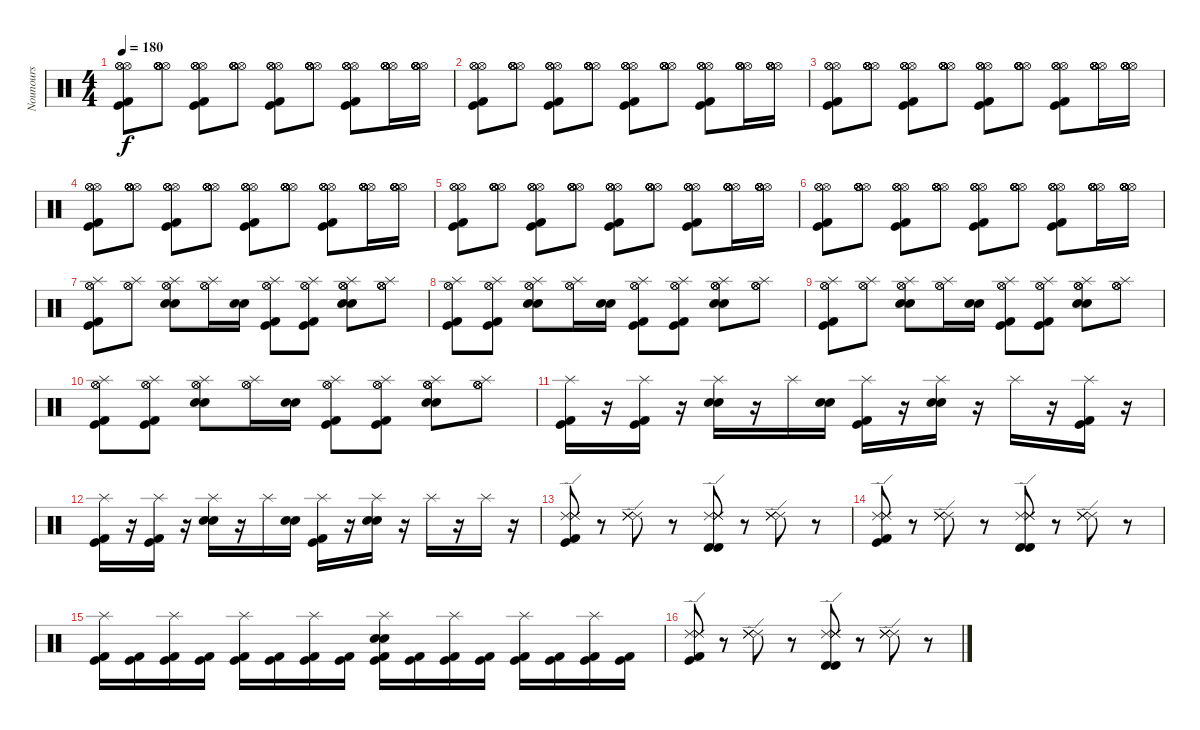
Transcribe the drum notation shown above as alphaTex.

\track ("Nounours" "Nounours") {instrument percussion}
\staff {score}
\articulation defaults
\ts (4 4)
\tempo 180
\clef neutral
\ks c
("Hi-Hat (open)" "Hi-Hat (open)" "Hi-Hat (open)" "Kick (hit) 2" "Kick (hit)").8{dy f} ("Hi-Hat (open)" "Hi-Hat (open)" "Hi-Hat (open)" "Hi-Hat (open)" "Hi-Hat (open)" "Hi-Hat (open)").8 ("Hi-Hat (open)" "Hi-Hat (open)" "Hi-Hat (open)" "Hi-Hat (open)" "Kick (hit) 2" "Kick (hit)").8 ("Hi-Hat (open)" "Hi-Hat (open)" "Hi-Hat (open)" "Hi-Hat (open)" "Hi-Hat (open)" "Hi-Hat (open)").8 ("Hi-Hat (open)" "Hi-Hat (open)" "Hi-Hat (open)" "Hi-Hat (open)" "Kick (hit)" "Kick (hit) 2").8 ("Hi-Hat (open)" "Hi-Hat (open)" "Hi-Hat (open)" "Hi-Hat (open)" "Hi-Hat (open)" "Hi-Hat (open)").8 ("Hi-Hat (open)" "Hi-Hat (open)" "Hi-Hat (open)" "Hi-Hat (open)" "Kick (hit) 2" "Kick (hit)").8 ("Hi-Hat (open)" "Hi-Hat (open)" "Hi-Hat (open)" "Hi-Hat (open)" "Hi-Hat (open)" "Hi-Hat (open)").16 ("Hi-Hat (open)" "Hi-Hat (open)" "Hi-Hat (open)" "Hi-Hat (open)" "Hi-Hat (open)" "Hi-Hat (open)").16 |
("Hi-Hat (open)" "Hi-Hat (open)" "Hi-Hat (open)" "Kick (hit) 2" "Kick (hit)").8 ("Hi-Hat (open)" "Hi-Hat (open)" "Hi-Hat (open)" "Hi-Hat (open)" "Hi-Hat (open)" "Hi-Hat (open)").8 ("Hi-Hat (open)" "Hi-Hat (open)" "Hi-Hat (open)" "Hi-Hat (open)" "Kick (hit) 2" "Kick (hit)").8 ("Hi-Hat (open)" "Hi-Hat (open)" "Hi-Hat (open)" "Hi-Hat (open)" "Hi-Hat (open)" "Hi-Hat (open)").8 ("Hi-Hat (open)" "Hi-Hat (open)" "Hi-Hat (open)" "Hi-Hat (open)" "Kick (hit)" "Kick (hit) 2").8 ("Hi-Hat (open)" "Hi-Hat (open)" "Hi-Hat (open)" "Hi-Hat (open)" "Hi-Hat (open)" "Hi-Hat (open)").8 ("Hi-Hat (open)" "Hi-Hat (open)" "Hi-Hat (open)" "Hi-Hat (open)" "Kick (hit) 2" "Kick (hit)").8 ("Hi-Hat (open)" "Hi-Hat (open)" "Hi-Hat (open)" "Hi-Hat (open)" "Hi-Hat (open)" "Hi-Hat (open)").16 ("Hi-Hat (open)" "Hi-Hat (open)" "Hi-Hat (open)" "Hi-Hat (open)" "Hi-Hat (open)" "Hi-Hat (open)").16 |
("Hi-Hat (open)" "Hi-Hat (open)" "Hi-Hat (open)" "Kick (hit) 2" "Kick (hit)").8 ("Hi-Hat (open)" "Hi-Hat (open)" "Hi-Hat (open)" "Hi-Hat (open)" "Hi-Hat (open)" "Hi-Hat (open)").8 ("Hi-Hat (open)" "Hi-Hat (open)" "Hi-Hat (open)" "Hi-Hat (open)" "Kick (hit) 2" "Kick (hit)").8 ("Hi-Hat (open)" "Hi-Hat (open)" "Hi-Hat (open)" "Hi-Hat (open)" "Hi-Hat (open)" "Hi-Hat (open)").8 ("Hi-Hat (open)" "Hi-Hat (open)" "Hi-Hat (open)" "Hi-Hat (open)" "Kick (hit)" "Kick (hit) 2").8 ("Hi-Hat (open)" "Hi-Hat (open)" "Hi-Hat (open)" "Hi-Hat (open)" "Hi-Hat (open)" "Hi-Hat (open)").8 ("Hi-Hat (open)" "Hi-Hat (open)" "Hi-Hat (open)" "Hi-Hat (open)" "Kick (hit) 2" "Kick (hit)").8 ("Hi-Hat (open)" "Hi-Hat (open)" "Hi-Hat (open)" "Hi-Hat (open)" "Hi-Hat (open)" "Hi-Hat (open)").16 ("Hi-Hat (open)" "Hi-Hat (open)" "Hi-Hat (open)" "Hi-Hat (open)" "Hi-Hat (open)" "Hi-Hat (open)").16 |
("Hi-Hat (open)" "Hi-Hat (open)" "Hi-Hat (open)" "Kick (hit) 2" "Kick (hit)").8 ("Hi-Hat (open)" "Hi-Hat (open)" "Hi-Hat (open)" "Hi-Hat (open)" "Hi-Hat (open)" "Hi-Hat (open)").8 ("Hi-Hat (open)" "Hi-Hat (open)" "Hi-Hat (open)" "Hi-Hat (open)" "Kick (hit) 2" "Kick (hit)").8 ("Hi-Hat (open)" "Hi-Hat (open)" "Hi-Hat (open)" "Hi-Hat (open)" "Hi-Hat (open)" "Hi-Hat (open)").8 ("Hi-Hat (open)" "Hi-Hat (open)" "Hi-Hat (open)" "Hi-Hat (open)" "Kick (hit)" "Kick (hit) 2").8 ("Hi-Hat (open)" "Hi-Hat (open)" "Hi-Hat (open)" "Hi-Hat (open)" "Hi-Hat (open)" "Hi-Hat (open)").8 ("Hi-Hat (open)" "Hi-Hat (open)" "Hi-Hat (open)" "Hi-Hat (open)" "Kick (hit) 2" "Kick (hit)").8 ("Hi-Hat (open)" "Hi-Hat (open)" "Hi-Hat (open)" "Hi-Hat (open)" "Hi-Hat (open)" "Hi-Hat (open)").16 ("Hi-Hat (open)" "Hi-Hat (open)" "Hi-Hat (open)" "Hi-Hat (open)" "Hi-Hat (open)" "Hi-Hat (open)").16 |
("Hi-Hat (open)" "Hi-Hat (open)" "Hi-Hat (open)" "Kick (hit) 2" "Kick (hit)").8 ("Hi-Hat (open)" "Hi-Hat (open)" "Hi-Hat (open)" "Hi-Hat (open)" "Hi-Hat (open)" "Hi-Hat (open)").8 ("Hi-Hat (open)" "Hi-Hat (open)" "Hi-Hat (open)" "Hi-Hat (open)" "Kick (hit) 2" "Kick (hit)").8 ("Hi-Hat (open)" "Hi-Hat (open)" "Hi-Hat (open)" "Hi-Hat (open)" "Hi-Hat (open)" "Hi-Hat (open)").8 ("Hi-Hat (open)" "Hi-Hat (open)" "Hi-Hat (open)" "Hi-Hat (open)" "Kick (hit)" "Kick (hit) 2").8 ("Hi-Hat (open)" "Hi-Hat (open)" "Hi-Hat (open)" "Hi-Hat (open)" "Hi-Hat (open)" "Hi-Hat (open)").8 ("Hi-Hat (open)" "Hi-Hat (open)" "Hi-Hat (open)" "Hi-Hat (open)" "Kick (hit) 2" "Kick (hit)").8 ("Hi-Hat (open)" "Hi-Hat (open)" "Hi-Hat (open)" "Hi-Hat (open)" "Hi-Hat (open)" "Hi-Hat (open)").16 ("Hi-Hat (open)" "Hi-Hat (open)" "Hi-Hat (open)" "Hi-Hat (open)" "Hi-Hat (open)" "Hi-Hat (open)").16 |
("Hi-Hat (open)" "Hi-Hat (open)" "Hi-Hat (open)" "Kick (hit) 2" "Kick (hit)").8 ("Hi-Hat (open)" "Hi-Hat (open)" "Hi-Hat (open)" "Hi-Hat (open)" "Hi-Hat (open)" "Hi-Hat (open)").8 ("Hi-Hat (open)" "Hi-Hat (open)" "Hi-Hat (open)" "Hi-Hat (open)" "Kick (hit) 2" "Kick (hit)").8 ("Hi-Hat (open)" "Hi-Hat (open)" "Hi-Hat (open)" "Hi-Hat (open)" "Hi-Hat (open)" "Hi-Hat (open)").8 ("Hi-Hat (open)" "Hi-Hat (open)" "Hi-Hat (open)" "Hi-Hat (open)" "Kick (hit)" "Kick (hit) 2").8 ("Hi-Hat (open)" "Hi-Hat (open)" "Hi-Hat (open)" "Hi-Hat (open)" "Hi-Hat (open)" "Hi-Hat (open)").8 ("Hi-Hat (open)" "Hi-Hat (open)" "Hi-Hat (open)" "Hi-Hat (open)" "Kick (hit) 2" "Kick (hit)").8 ("Hi-Hat (open)" "Hi-Hat (open)" "Hi-Hat (open)" "Hi-Hat (open)" "Hi-Hat (open)" "Hi-Hat (open)").16 ("Hi-Hat (open)" "Hi-Hat (open)" "Hi-Hat (open)" "Hi-Hat (open)" "Hi-Hat (open)" "Hi-Hat (open)").16 |
("Hi-Hat (open)" "Hi-Hat (open)" "Splash (hit)" "Kick (hit) 2" "Kick (hit)").8 ("Hi-Hat (open)" "Hi-Hat (open)" "Splash (hit)").8 ("Hi-Hat (open)" "Hi-Hat (open)" "Splash (hit)" "Snare (hit) 2" "Electric Snare (hit)").8 ("Hi-Hat (open)" "Hi-Hat (open)" "Splash (hit)").16 ("Snare (hit) 2" "Electric Snare (hit)").16 ("Hi-Hat (open)" "Hi-Hat (open)" "Splash (hit)" "Kick (hit) 2" "Kick (hit)").8 ("Hi-Hat (open)" "Hi-Hat (open)" "Splash (hit)" "Kick (hit) 2" "Kick (hit)").8 ("Hi-Hat (open)" "Hi-Hat (open)" "Splash (hit)" "Hi-Hat (open)" "Electric Snare (hit)" "Snare (hit) 2").8 ("Hi-Hat (open)" "Splash (hit)" "Hi-Hat (open)" "Hi-Hat (open)").8 |
("Hi-Hat (open)" "Hi-Hat (open)" "Splash (hit)" "Kick (hit) 2" "Kick (hit)").8 ("Hi-Hat (open)" "Hi-Hat (open)" "Splash (hit)" "Kick (hit)" "Kick (hit) 2").8 ("Hi-Hat (open)" "Hi-Hat (open)" "Splash (hit)" "Snare (hit) 2" "Electric Snare (hit)").8 ("Hi-Hat (open)" "Hi-Hat (open)" "Splash (hit)").16 ("Snare (hit) 2" "Electric Snare (hit)").16 ("Hi-Hat (open)" "Hi-Hat (open)" "Splash (hit)" "Kick (hit) 2" "Kick (hit)").8 ("Hi-Hat (open)" "Hi-Hat (open)" "Splash (hit)" "Kick (hit) 2" "Kick (hit)").8 ("Hi-Hat (open)" "Hi-Hat (open)" "Splash (hit)" "Hi-Hat (open)" "Electric Snare (hit)" "Snare (hit) 2").8 ("Hi-Hat (open)" "Splash (hit)" "Hi-Hat (open)" "Hi-Hat (open)").8 |
("Hi-Hat (open)" "Hi-Hat (open)" "Splash (hit)" "Kick (hit) 2" "Kick (hit)").8 ("Hi-Hat (open)" "Hi-Hat (open)" "Splash (hit)").8 ("Hi-Hat (open)" "Hi-Hat (open)" "Splash (hit)" "Snare (hit) 2" "Electric Snare (hit)").8 ("Hi-Hat (open)" "Hi-Hat (open)" "Splash (hit)").16 ("Snare (hit) 2" "Electric Snare (hit)").16 ("Hi-Hat (open)" "Hi-Hat (open)" "Splash (hit)" "Kick (hit) 2" "Kick (hit)").8 ("Hi-Hat (open)" "Hi-Hat (open)" "Splash (hit)" "Kick (hit) 2" "Kick (hit)").8 ("Hi-Hat (open)" "Hi-Hat (open)" "Splash (hit)" "Hi-Hat (open)" "Electric Snare (hit)" "Snare (hit) 2").8 ("Hi-Hat (open)" "Splash (hit)" "Hi-Hat (open)" "Hi-Hat (open)").8 |
("Hi-Hat (open)" "Hi-Hat (open)" "Splash (hit)" "Kick (hit) 2" "Kick (hit)").8 ("Hi-Hat (open)" "Hi-Hat (open)" "Splash (hit)" "Kick (hit)" "Kick (hit) 2").8 ("Hi-Hat (open)" "Hi-Hat (open)" "Splash (hit)" "Snare (hit) 2" "Electric Snare (hit)").8 ("Hi-Hat (open)" "Hi-Hat (open)" "Splash (hit)").16 ("Snare (hit) 2" "Electric Snare (hit)").16 ("Hi-Hat (open)" "Hi-Hat (open)" "Splash (hit)" "Kick (hit) 2" "Kick (hit)").8 ("Hi-Hat (open)" "Hi-Hat (open)" "Splash (hit)" "Kick (hit) 2" "Kick (hit)").8 ("Hi-Hat (open)" "Hi-Hat (open)" "Splash (hit)" "Hi-Hat (open)" "Electric Snare (hit)" "Snare (hit) 2").8 ("Hi-Hat (open)" "Splash (hit)" "Hi-Hat (open)" "Hi-Hat (open)").8 |
("Splash (hit)" "Kick (hit) 2" "Kick (hit)").16 r.16 ("Splash (hit)" "Kick (hit) 2" "Kick (hit)").16 r.16 ("Splash (hit)" "Snare (hit) 2" "Electric Snare (hit)").16 r.16 "Splash (hit)".16 ("Snare (hit) 2" "Electric Snare (hit)").16 ("Splash (hit)" "Kick (hit)" "Kick (hit) 2").16 r.16 ("Splash (hit)" "Electric Snare (hit)" "Snare (hit) 2").16 r.16 "Splash (hit)".16 r.16 ("Splash (hit)" "Kick (hit) 2" "Kick (hit)").16 r.16 |
("Splash (hit)" "Kick (hit) 2" "Kick (hit)").16 r.16 ("Splash (hit)" "Kick (hit) 2" "Kick (hit)").16 r.16 ("Splash (hit)" "Snare (hit) 2" "Electric Snare (hit)").16 r.16 "Splash (hit)".16 ("Snare (hit) 2" "Electric Snare (hit)").16 ("Splash (hit)" "Kick (hit)" "Kick (hit) 2").16 r.16 ("Splash (hit)" "Electric Snare (hit)" "Snare (hit) 2").16 r.16 "Splash (hit)".16 r.16 "Splash (hit)".16 r.16 |
("Ride (edge) 2" "Ride (edge) 2" "Ride (edge) 2" "Kick (hit) 2" "Kick (hit)").8 r.8 ("Ride (edge) 2" "Ride (edge) 2" "Ride (edge) 2" "Ride (edge) 2").8 r.8 ("Ride (edge) 2" "Ride (edge) 2" "Timbale high (hit)" "Timbale high (hit)" "Ride (edge) 2" "Ride (edge) 2").8 r.8 ("Ride (edge) 2" "Ride (edge) 2" "Ride (edge) 2" "Ride (edge) 2").8 r.8 |
("Ride (edge) 2" "Ride (edge) 2" "Ride (edge) 2" "Kick (hit) 2" "Kick (hit)").8 r.8 ("Ride (edge) 2" "Ride (edge) 2" "Ride (edge) 2" "Ride (edge) 2").8 r.8 ("Ride (edge) 2" "Ride (edge) 2" "Timbale high (hit)" "Timbale high (hit)" "Ride (edge) 2" "Ride (edge) 2").8 r.8 ("Ride (edge) 2" "Ride (edge) 2" "Ride (edge) 2" "Ride (edge) 2").8 r.8 |
("Splash (hit)" "Kick (hit) 2" "Kick (hit)").16 ("Kick (hit)" "Kick (hit) 2").16 ("Splash (hit)" "Kick (hit)" "Kick (hit) 2").16 ("Kick (hit) 2" "Kick (hit)").16 ("Splash (hit)" "Kick (hit) 2" "Kick (hit)").16 ("Kick (hit) 2" "Kick (hit)").16 ("Splash (hit)" "Kick (hit)" "Kick (hit) 2").16 ("Kick (hit)" "Kick (hit) 2").16 ("Splash (hit)" "Electric Snare (hit)" "Snare (hit) 2" "Kick (hit)" "Kick (hit) 2").16 ("Kick (hit)" "Kick (hit) 2").16 ("Splash (hit)" "Kick (hit) 2" "Kick (hit)").16 ("Kick (hit)" "Kick (hit) 2").16 ("Splash (hit)" "Kick (hit) 2" "Kick (hit)").16 ("Kick (hit) 2" "Kick (hit)").16 ("Splash (hit)" "Kick (hit)" "Kick (hit) 2").16 ("Kick (hit)" "Kick (hit) 2").16 |
("Ride (edge) 2" "Ride (edge) 2" "Ride (edge) 2" "Kick (hit) 2" "Kick (hit)").8 r.8 ("Ride (edge) 2" "Ride (edge) 2" "Ride (edge) 2" "Ride (edge) 2").8 r.8 ("Ride (edge) 2" "Ride (edge) 2" "Timbale high (hit)" "Timbale high (hit)" "Ride (edge) 2" "Ride (edge) 2").8 r.8 ("Ride (edge) 2" "Ride (edge) 2" "Ride (edge) 2" "Ride (edge) 2").8 r.8
